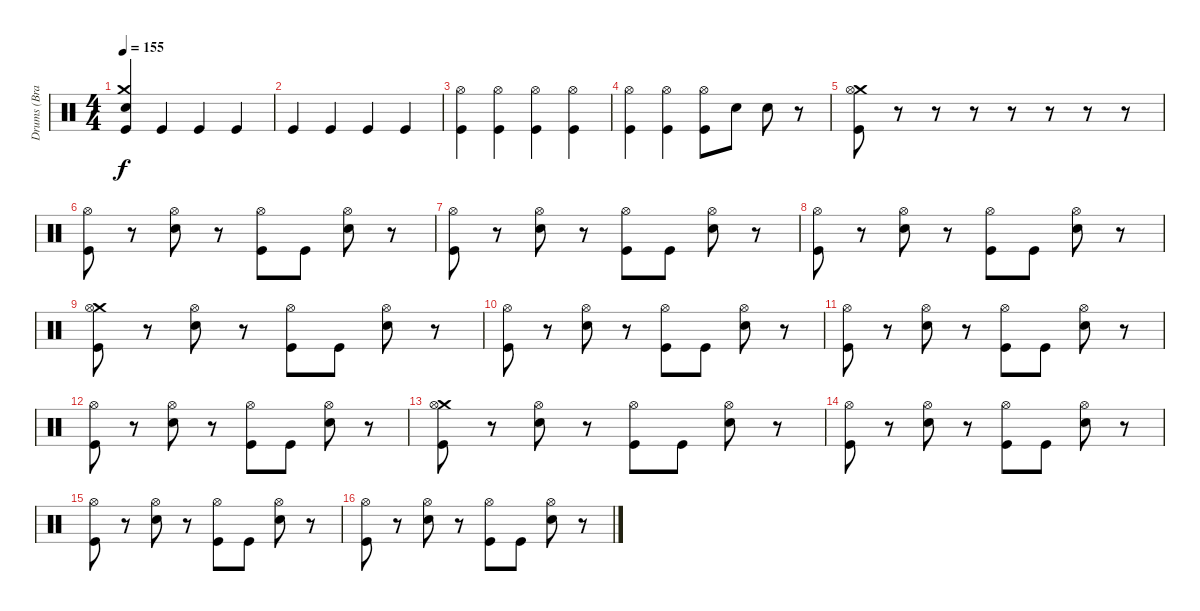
\track ("Drums (Bradie Webb)" "Drums (Bra") {instrument percussion}
\staff {score}
\articulation defaults
\ts (4 4)
\tempo 155
\clef neutral
\ks c
("Kick (hit)" "Crash medium (hit)" "Snare (hit) 2").4{dy f} "Kick (hit)".4 "Kick (hit)".4 "Kick (hit)".4 |
"Kick (hit)".4 "Kick (hit)".4 "Kick (hit)".4 "Kick (hit)".4 |
("Kick (hit)" "Hi-Hat (open)").4 ("Kick (hit)" "Hi-Hat (open)").4 ("Kick (hit)" "Hi-Hat (open)").4 ("Kick (hit)" "Hi-Hat (open)").4 |
("Kick (hit)" "Hi-Hat (open)").4 ("Kick (hit)" "Hi-Hat (open)").4 ("Kick (hit)" "Hi-Hat (open)").8 "Snare (hit) 2".8 "Snare (hit) 2".8 r.8 |
("Crash medium (hit)" "Hi-Hat (open)" "Kick (hit)").8 r.8 r.8 r.8 r.8 r.8 r.8 r.8 |
("Hi-Hat (open)" "Kick (hit)").8 r.8 ("Hi-Hat (open)" "Snare (hit) 2").8 r.8 ("Hi-Hat (open)" "Kick (hit)").8 "Kick (hit)".8 ("Hi-Hat (open)" "Snare (hit) 2").8 r.8 |
("Hi-Hat (open)" "Kick (hit)").8 r.8 ("Hi-Hat (open)" "Snare (hit) 2").8 r.8 ("Hi-Hat (open)" "Kick (hit)").8 "Kick (hit)".8 ("Hi-Hat (open)" "Snare (hit) 2").8 r.8 |
("Hi-Hat (open)" "Kick (hit)").8 r.8 ("Hi-Hat (open)" "Snare (hit) 2").8 r.8 ("Hi-Hat (open)" "Kick (hit)").8 "Kick (hit)".8 ("Hi-Hat (open)" "Snare (hit) 2").8 r.8 |
("Crash medium (hit)" "Hi-Hat (open)" "Kick (hit)").8 r.8 ("Hi-Hat (open)" "Snare (hit) 2").8 r.8 ("Hi-Hat (open)" "Kick (hit)").8 "Kick (hit)".8 ("Hi-Hat (open)" "Snare (hit) 2").8 r.8 |
("Hi-Hat (open)" "Kick (hit)").8 r.8 ("Hi-Hat (open)" "Snare (hit) 2").8 r.8 ("Hi-Hat (open)" "Kick (hit)").8 "Kick (hit)".8 ("Hi-Hat (open)" "Snare (hit) 2").8 r.8 |
("Hi-Hat (open)" "Kick (hit)").8 r.8 ("Hi-Hat (open)" "Snare (hit) 2").8 r.8 ("Hi-Hat (open)" "Kick (hit)").8 "Kick (hit)".8 ("Hi-Hat (open)" "Snare (hit) 2").8 r.8 |
("Hi-Hat (open)" "Kick (hit)").8 r.8 ("Hi-Hat (open)" "Snare (hit) 2").8 r.8 ("Hi-Hat (open)" "Kick (hit)").8 "Kick (hit)".8 ("Hi-Hat (open)" "Snare (hit) 2").8 r.8 |
("Crash medium (hit)" "Hi-Hat (open)" "Kick (hit)").8 r.8 ("Hi-Hat (open)" "Snare (hit) 2").8 r.8 ("Hi-Hat (open)" "Kick (hit)").8 "Kick (hit)".8 ("Hi-Hat (open)" "Snare (hit) 2").8 r.8 |
("Hi-Hat (open)" "Kick (hit)").8 r.8 ("Hi-Hat (open)" "Snare (hit) 2").8 r.8 ("Hi-Hat (open)" "Kick (hit)").8 "Kick (hit)".8 ("Hi-Hat (open)" "Snare (hit) 2").8 r.8 |
("Hi-Hat (open)" "Kick (hit)").8 r.8 ("Hi-Hat (open)" "Snare (hit) 2").8 r.8 ("Hi-Hat (open)" "Kick (hit)").8 "Kick (hit)".8 ("Hi-Hat (open)" "Snare (hit) 2").8 r.8 |
("Hi-Hat (open)" "Kick (hit)").8 r.8 ("Hi-Hat (open)" "Snare (hit) 2").8 r.8 ("Hi-Hat (open)" "Kick (hit)").8 "Kick (hit)".8 ("Hi-Hat (open)" "Snare (hit) 2").8 r.8
